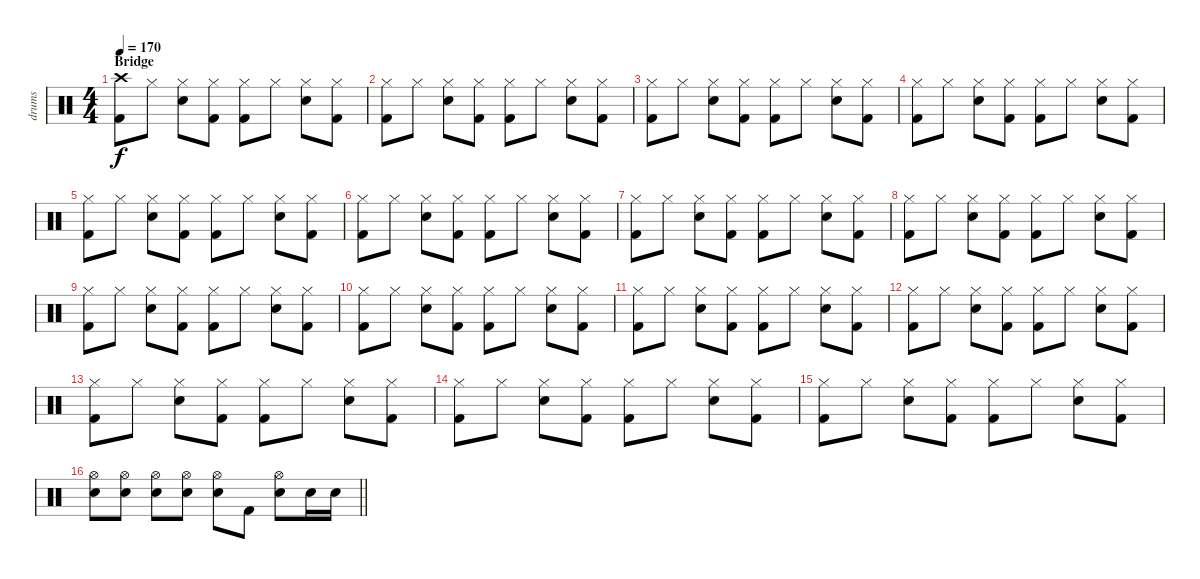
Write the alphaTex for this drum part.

\track ("drums" "drums") {instrument percussion}
\staff {score}
\articulation defaults
\ts (4 4)
\section ("" "Bridge")
\tempo 170
\clef neutral
\ks c
("Crash high (hit)" "Kick (hit) 2").8{dy f} "Hi-Hat (closed)".8 ("Hi-Hat (closed)" "Snare (hit) 2").8 ("Hi-Hat (closed)" "Kick (hit) 2").8 ("Hi-Hat (closed)" "Kick (hit) 2").8 "Hi-Hat (closed)".8 ("Hi-Hat (closed)" "Snare (hit) 2").8 ("Hi-Hat (closed)" "Kick (hit) 2").8 |
("Hi-Hat (closed)" "Kick (hit) 2").8 "Hi-Hat (closed)".8 ("Hi-Hat (closed)" "Snare (hit) 2").8 ("Hi-Hat (closed)" "Kick (hit) 2").8 ("Hi-Hat (closed)" "Kick (hit) 2").8 "Hi-Hat (closed)".8 ("Hi-Hat (closed)" "Snare (hit) 2").8 ("Hi-Hat (closed)" "Kick (hit) 2").8 |
("Hi-Hat (closed)" "Kick (hit) 2").8 "Hi-Hat (closed)".8 ("Hi-Hat (closed)" "Snare (hit) 2").8 ("Hi-Hat (closed)" "Kick (hit) 2").8 ("Hi-Hat (closed)" "Kick (hit) 2").8 "Hi-Hat (closed)".8 ("Hi-Hat (closed)" "Snare (hit) 2").8 ("Hi-Hat (closed)" "Kick (hit) 2").8 |
("Hi-Hat (closed)" "Kick (hit) 2").8 "Hi-Hat (closed)".8 ("Hi-Hat (closed)" "Snare (hit) 2").8 ("Hi-Hat (closed)" "Kick (hit) 2").8 ("Hi-Hat (closed)" "Kick (hit) 2").8 "Hi-Hat (closed)".8 ("Hi-Hat (closed)" "Snare (hit) 2").8 ("Hi-Hat (closed)" "Kick (hit) 2").8 |
("Hi-Hat (closed)" "Kick (hit) 2").8 "Hi-Hat (closed)".8 ("Hi-Hat (closed)" "Snare (hit) 2").8 ("Hi-Hat (closed)" "Kick (hit) 2").8 ("Hi-Hat (closed)" "Kick (hit) 2").8 "Hi-Hat (closed)".8 ("Hi-Hat (closed)" "Snare (hit) 2").8 ("Hi-Hat (closed)" "Kick (hit) 2").8 |
("Hi-Hat (closed)" "Kick (hit) 2").8 "Hi-Hat (closed)".8 ("Hi-Hat (closed)" "Snare (hit) 2").8 ("Hi-Hat (closed)" "Kick (hit) 2").8 ("Hi-Hat (closed)" "Kick (hit) 2").8 "Hi-Hat (closed)".8 ("Hi-Hat (closed)" "Snare (hit) 2").8 ("Hi-Hat (closed)" "Kick (hit) 2").8 |
("Hi-Hat (closed)" "Kick (hit) 2").8 "Hi-Hat (closed)".8 ("Hi-Hat (closed)" "Snare (hit) 2").8 ("Hi-Hat (closed)" "Kick (hit) 2").8 ("Hi-Hat (closed)" "Kick (hit) 2").8 "Hi-Hat (closed)".8 ("Hi-Hat (closed)" "Snare (hit) 2").8 ("Hi-Hat (closed)" "Kick (hit) 2").8 |
("Hi-Hat (closed)" "Kick (hit) 2").8 "Hi-Hat (closed)".8 ("Hi-Hat (closed)" "Snare (hit) 2").8 ("Hi-Hat (closed)" "Kick (hit) 2").8 ("Hi-Hat (closed)" "Kick (hit) 2").8 "Hi-Hat (closed)".8 ("Hi-Hat (closed)" "Snare (hit) 2").8 ("Hi-Hat (closed)" "Kick (hit) 2").8 |
("Hi-Hat (closed)" "Kick (hit) 2").8 "Hi-Hat (closed)".8 ("Hi-Hat (closed)" "Snare (hit) 2").8 ("Hi-Hat (closed)" "Kick (hit) 2").8 ("Hi-Hat (closed)" "Kick (hit) 2").8 "Hi-Hat (closed)".8 ("Hi-Hat (closed)" "Snare (hit) 2").8 ("Hi-Hat (closed)" "Kick (hit) 2").8 |
("Hi-Hat (closed)" "Kick (hit) 2").8 "Hi-Hat (closed)".8 ("Hi-Hat (closed)" "Snare (hit) 2").8 ("Hi-Hat (closed)" "Kick (hit) 2").8 ("Hi-Hat (closed)" "Kick (hit) 2").8 "Hi-Hat (closed)".8 ("Hi-Hat (closed)" "Snare (hit) 2").8 ("Hi-Hat (closed)" "Kick (hit) 2").8 |
("Hi-Hat (closed)" "Kick (hit) 2").8 "Hi-Hat (closed)".8 ("Hi-Hat (closed)" "Snare (hit) 2").8 ("Hi-Hat (closed)" "Kick (hit) 2").8 ("Hi-Hat (closed)" "Kick (hit) 2").8 "Hi-Hat (closed)".8 ("Hi-Hat (closed)" "Snare (hit) 2").8 ("Hi-Hat (closed)" "Kick (hit) 2").8 |
("Hi-Hat (closed)" "Kick (hit) 2").8 "Hi-Hat (closed)".8 ("Hi-Hat (closed)" "Snare (hit) 2").8 ("Hi-Hat (closed)" "Kick (hit) 2").8 ("Hi-Hat (closed)" "Kick (hit) 2").8 "Hi-Hat (closed)".8 ("Hi-Hat (closed)" "Snare (hit) 2").8 ("Hi-Hat (closed)" "Kick (hit) 2").8 |
("Hi-Hat (closed)" "Kick (hit) 2").8 "Hi-Hat (closed)".8 ("Hi-Hat (closed)" "Snare (hit) 2").8 ("Hi-Hat (closed)" "Kick (hit) 2").8 ("Hi-Hat (closed)" "Kick (hit) 2").8 "Hi-Hat (closed)".8 ("Hi-Hat (closed)" "Snare (hit) 2").8 ("Hi-Hat (closed)" "Kick (hit) 2").8 |
("Hi-Hat (closed)" "Kick (hit) 2").8 "Hi-Hat (closed)".8 ("Hi-Hat (closed)" "Snare (hit) 2").8 ("Hi-Hat (closed)" "Kick (hit) 2").8 ("Hi-Hat (closed)" "Kick (hit) 2").8 "Hi-Hat (closed)".8 ("Hi-Hat (closed)" "Snare (hit) 2").8 ("Hi-Hat (closed)" "Kick (hit) 2").8 |
("Hi-Hat (closed)" "Kick (hit) 2").8 "Hi-Hat (closed)".8 ("Hi-Hat (closed)" "Snare (hit) 2").8 ("Hi-Hat (closed)" "Kick (hit) 2").8 ("Hi-Hat (closed)" "Kick (hit) 2").8 "Hi-Hat (closed)".8 ("Hi-Hat (closed)" "Snare (hit) 2").8 ("Hi-Hat (closed)" "Kick (hit) 2").8 |
\barLineRight lightlight
("Hi-Hat (open)" "Snare (hit) 2").8 ("Hi-Hat (open)" "Snare (hit) 2").8 ("Hi-Hat (open)" "Snare (hit) 2").8 ("Hi-Hat (open)" "Snare (hit) 2").8 ("Hi-Hat (open)" "Snare (hit) 2").8 "Kick (hit) 2".8 ("Hi-Hat (open)" "Snare (hit) 2").8 "Electric Snare (hit)".16 "Snare (hit) 2".16
